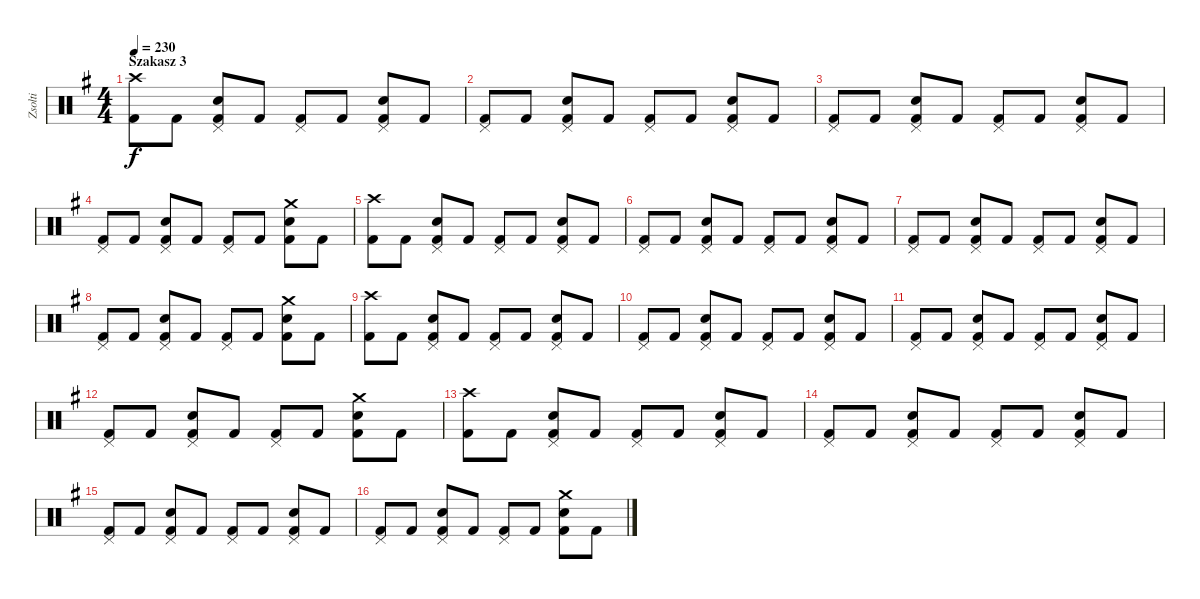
\track ("Zsolti" "Zsolti") {instrument percussion}
\staff {score}
\articulation defaults
\ts (4 4)
\section ("" "Szakasz 3")
\tempo 230
\clef neutral
\ks eminor
("Crash high (hit)" "Kick (hit) 2").8{dy f} "Kick (hit) 2".8 ("Pedal Hi-Hat (hit)" "Snare (hit) 2" "Kick (hit) 2").8 "Kick (hit) 2".8 ("Pedal Hi-Hat (hit)" "Kick (hit) 2").8 "Kick (hit) 2".8 ("Pedal Hi-Hat (hit)" "Snare (hit) 2" "Kick (hit) 2").8 "Kick (hit) 2".8 |
("Pedal Hi-Hat (hit)" "Kick (hit) 2").8 "Kick (hit) 2".8 ("Pedal Hi-Hat (hit)" "Snare (hit) 2" "Kick (hit) 2").8 "Kick (hit) 2".8 ("Pedal Hi-Hat (hit)" "Kick (hit) 2").8 "Kick (hit) 2".8 ("Pedal Hi-Hat (hit)" "Snare (hit) 2" "Kick (hit) 2").8 "Kick (hit) 2".8 |
("Pedal Hi-Hat (hit)" "Kick (hit) 2").8 "Kick (hit) 2".8 ("Pedal Hi-Hat (hit)" "Snare (hit) 2" "Kick (hit) 2").8 "Kick (hit) 2".8 ("Pedal Hi-Hat (hit)" "Kick (hit) 2").8 "Kick (hit) 2".8 ("Pedal Hi-Hat (hit)" "Snare (hit) 2" "Kick (hit) 2").8 "Kick (hit) 2".8 |
("Pedal Hi-Hat (hit)" "Kick (hit) 2").8 "Kick (hit) 2".8 ("Pedal Hi-Hat (hit)" "Snare (hit) 2" "Kick (hit) 2").8 "Kick (hit) 2".8 ("Pedal Hi-Hat (hit)" "Kick (hit) 2").8 "Kick (hit) 2".8 ("Crash medium (hit)" "Snare (hit) 2" "Kick (hit) 2").8 "Kick (hit) 2".8 |
("Crash high (hit)" "Kick (hit) 2").8 "Kick (hit) 2".8 ("Pedal Hi-Hat (hit)" "Snare (hit) 2" "Kick (hit) 2").8 "Kick (hit) 2".8 ("Pedal Hi-Hat (hit)" "Kick (hit) 2").8 "Kick (hit) 2".8 ("Pedal Hi-Hat (hit)" "Snare (hit) 2" "Kick (hit) 2").8 "Kick (hit) 2".8 |
("Pedal Hi-Hat (hit)" "Kick (hit) 2").8 "Kick (hit) 2".8 ("Pedal Hi-Hat (hit)" "Snare (hit) 2" "Kick (hit) 2").8 "Kick (hit) 2".8 ("Pedal Hi-Hat (hit)" "Kick (hit) 2").8 "Kick (hit) 2".8 ("Pedal Hi-Hat (hit)" "Snare (hit) 2" "Kick (hit) 2").8 "Kick (hit) 2".8 |
("Pedal Hi-Hat (hit)" "Kick (hit) 2").8 "Kick (hit) 2".8 ("Pedal Hi-Hat (hit)" "Snare (hit) 2" "Kick (hit) 2").8 "Kick (hit) 2".8 ("Pedal Hi-Hat (hit)" "Kick (hit) 2").8 "Kick (hit) 2".8 ("Pedal Hi-Hat (hit)" "Snare (hit) 2" "Kick (hit) 2").8 "Kick (hit) 2".8 |
("Pedal Hi-Hat (hit)" "Kick (hit) 2").8 "Kick (hit) 2".8 ("Pedal Hi-Hat (hit)" "Snare (hit) 2" "Kick (hit) 2").8 "Kick (hit) 2".8 ("Pedal Hi-Hat (hit)" "Kick (hit) 2").8 "Kick (hit) 2".8 ("Crash medium (hit)" "Snare (hit) 2" "Kick (hit) 2").8 "Kick (hit) 2".8 |
("Crash high (hit)" "Kick (hit) 2").8 "Kick (hit) 2".8 ("Pedal Hi-Hat (hit)" "Snare (hit) 2" "Kick (hit) 2").8 "Kick (hit) 2".8 ("Pedal Hi-Hat (hit)" "Kick (hit) 2").8 "Kick (hit) 2".8 ("Pedal Hi-Hat (hit)" "Snare (hit) 2" "Kick (hit) 2").8 "Kick (hit) 2".8 |
("Pedal Hi-Hat (hit)" "Kick (hit) 2").8 "Kick (hit) 2".8 ("Pedal Hi-Hat (hit)" "Snare (hit) 2" "Kick (hit) 2").8 "Kick (hit) 2".8 ("Pedal Hi-Hat (hit)" "Kick (hit) 2").8 "Kick (hit) 2".8 ("Pedal Hi-Hat (hit)" "Snare (hit) 2" "Kick (hit) 2").8 "Kick (hit) 2".8 |
("Pedal Hi-Hat (hit)" "Kick (hit) 2").8 "Kick (hit) 2".8 ("Pedal Hi-Hat (hit)" "Snare (hit) 2" "Kick (hit) 2").8 "Kick (hit) 2".8 ("Pedal Hi-Hat (hit)" "Kick (hit) 2").8 "Kick (hit) 2".8 ("Pedal Hi-Hat (hit)" "Snare (hit) 2" "Kick (hit) 2").8 "Kick (hit) 2".8 |
("Pedal Hi-Hat (hit)" "Kick (hit) 2").8 "Kick (hit) 2".8 ("Pedal Hi-Hat (hit)" "Snare (hit) 2" "Kick (hit) 2").8 "Kick (hit) 2".8 ("Pedal Hi-Hat (hit)" "Kick (hit) 2").8 "Kick (hit) 2".8 ("Crash medium (hit)" "Snare (hit) 2" "Kick (hit) 2").8 "Kick (hit) 2".8 |
("Crash high (hit)" "Kick (hit) 2").8 "Kick (hit) 2".8 ("Pedal Hi-Hat (hit)" "Snare (hit) 2" "Kick (hit) 2").8 "Kick (hit) 2".8 ("Pedal Hi-Hat (hit)" "Kick (hit) 2").8 "Kick (hit) 2".8 ("Pedal Hi-Hat (hit)" "Snare (hit) 2" "Kick (hit) 2").8 "Kick (hit) 2".8 |
("Pedal Hi-Hat (hit)" "Kick (hit) 2").8 "Kick (hit) 2".8 ("Pedal Hi-Hat (hit)" "Snare (hit) 2" "Kick (hit) 2").8 "Kick (hit) 2".8 ("Pedal Hi-Hat (hit)" "Kick (hit) 2").8 "Kick (hit) 2".8 ("Pedal Hi-Hat (hit)" "Snare (hit) 2" "Kick (hit) 2").8 "Kick (hit) 2".8 |
("Pedal Hi-Hat (hit)" "Kick (hit) 2").8 "Kick (hit) 2".8 ("Pedal Hi-Hat (hit)" "Snare (hit) 2" "Kick (hit) 2").8 "Kick (hit) 2".8 ("Pedal Hi-Hat (hit)" "Kick (hit) 2").8 "Kick (hit) 2".8 ("Pedal Hi-Hat (hit)" "Snare (hit) 2" "Kick (hit) 2").8 "Kick (hit) 2".8 |
("Pedal Hi-Hat (hit)" "Kick (hit) 2").8 "Kick (hit) 2".8 ("Pedal Hi-Hat (hit)" "Snare (hit) 2" "Kick (hit) 2").8 "Kick (hit) 2".8 ("Pedal Hi-Hat (hit)" "Kick (hit) 2").8 "Kick (hit) 2".8 ("Crash medium (hit)" "Snare (hit) 2" "Kick (hit) 2").8 "Kick (hit) 2".8
